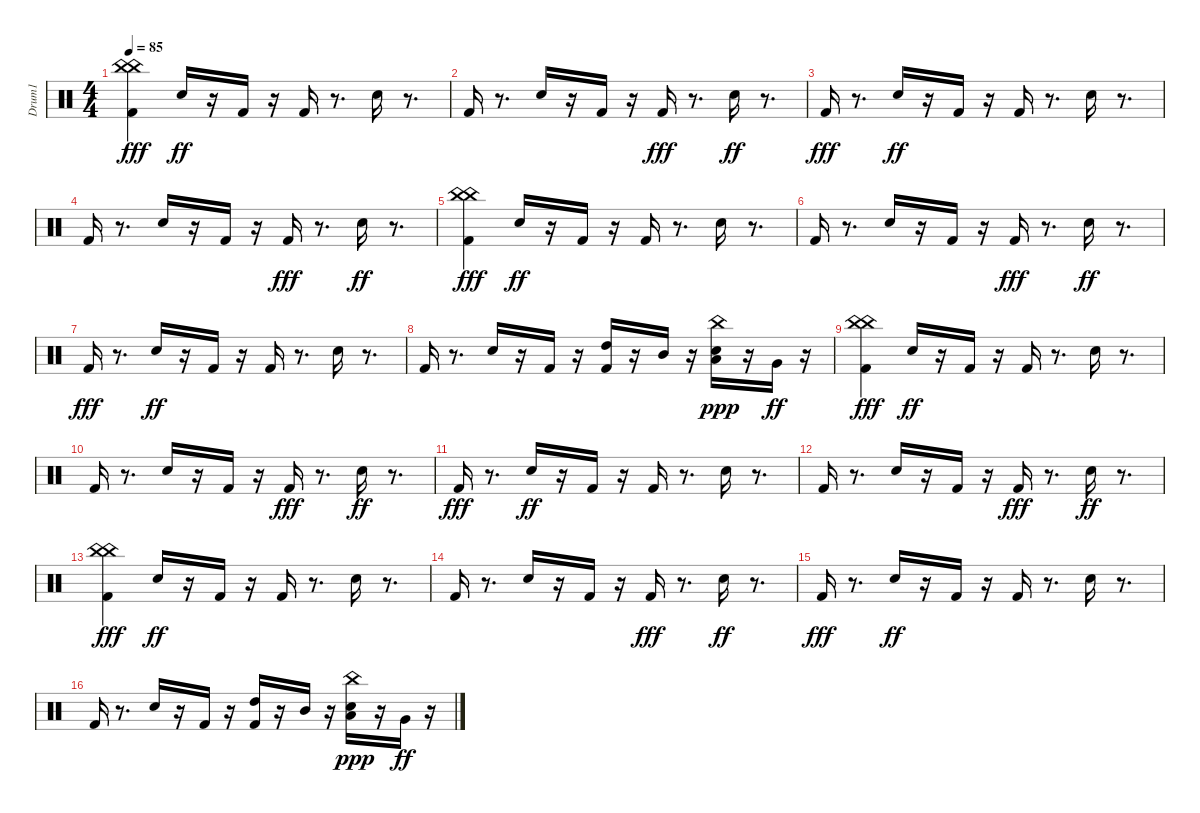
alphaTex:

\track ("Drum1" "Drum1") {instrument percussion}
\staff {score}
\articulation defaults
\ts (4 4)
\tempo 85
\clef neutral
\ks c
("China (hit)" "Kick (hit) 2" "China (hit)").4{dy fff} "Hand Clap (hit)".16{dy ff} r.16 "Kick (hit) 2".16 r.16 "Kick (hit) 2".16 r.8{d} "Hand Clap (hit)".16 r.8{d} |
"Kick (hit) 2".16 r.8{d} "Hand Clap (hit)".16 r.16 "Kick (hit) 2".16 r.16 "Kick (hit) 2".16{dy fff} r.8{d} "Hand Clap (hit)".16{dy ff} r.8{d} |
"Kick (hit) 2".16{dy fff} r.8{d} "Hand Clap (hit)".16{dy ff} r.16 "Kick (hit) 2".16 r.16 "Kick (hit) 2".16 r.8{d} "Hand Clap (hit)".16 r.8{d} |
"Kick (hit) 2".16 r.8{d} "Hand Clap (hit)".16 r.16 "Kick (hit) 2".16 r.16 "Kick (hit) 2".16{dy fff} r.8{d} "Hand Clap (hit)".16{dy ff} r.8{d} |
("China (hit)" "Kick (hit) 2" "China (hit)").4{dy fff} "Hand Clap (hit)".16{dy ff} r.16 "Kick (hit) 2".16 r.16 "Kick (hit) 2".16 r.8{d} "Hand Clap (hit)".16 r.8{d} |
"Kick (hit) 2".16 r.8{d} "Hand Clap (hit)".16 r.16 "Kick (hit) 2".16 r.16 "Kick (hit) 2".16{dy fff} r.8{d} "Hand Clap (hit)".16{dy ff} r.8{d} |
"Kick (hit) 2".16{dy fff} r.8{d} "Hand Clap (hit)".16{dy ff} r.16 "Kick (hit) 2".16 r.16 "Kick (hit) 2".16 r.8{d} "Hand Clap (hit)".16 r.8{d} |
"Kick (hit) 2".16 r.8{d} "Hand Clap (hit)".16 r.16 "Kick (hit) 2".16 r.16 ("Kick (hit) 2" "High Tom (hit)").16 r.16 "Mid Tom (hit)".16 r.16 ("Hand Clap (hit)" "Low Tom (hit)" "China (hit)").16{dy ppp} r.16 "Very Low Tom (hit)".16{dy ff} r.16 |
("China (hit)" "Kick (hit) 2" "China (hit)").4{dy fff} "Hand Clap (hit)".16{dy ff} r.16 "Kick (hit) 2".16 r.16 "Kick (hit) 2".16 r.8{d} "Hand Clap (hit)".16 r.8{d} |
"Kick (hit) 2".16 r.8{d} "Hand Clap (hit)".16 r.16 "Kick (hit) 2".16 r.16 "Kick (hit) 2".16{dy fff} r.8{d} "Hand Clap (hit)".16{dy ff} r.8{d} |
"Kick (hit) 2".16{dy fff} r.8{d} "Hand Clap (hit)".16{dy ff} r.16 "Kick (hit) 2".16 r.16 "Kick (hit) 2".16 r.8{d} "Hand Clap (hit)".16 r.8{d} |
"Kick (hit) 2".16 r.8{d} "Hand Clap (hit)".16 r.16 "Kick (hit) 2".16 r.16 "Kick (hit) 2".16{dy fff} r.8{d} "Hand Clap (hit)".16{dy ff} r.8{d} |
("China (hit)" "Kick (hit) 2" "China (hit)").4{dy fff} "Hand Clap (hit)".16{dy ff} r.16 "Kick (hit) 2".16 r.16 "Kick (hit) 2".16 r.8{d} "Hand Clap (hit)".16 r.8{d} |
"Kick (hit) 2".16 r.8{d} "Hand Clap (hit)".16 r.16 "Kick (hit) 2".16 r.16 "Kick (hit) 2".16{dy fff} r.8{d} "Hand Clap (hit)".16{dy ff} r.8{d} |
"Kick (hit) 2".16{dy fff} r.8{d} "Hand Clap (hit)".16{dy ff} r.16 "Kick (hit) 2".16 r.16 "Kick (hit) 2".16 r.8{d} "Hand Clap (hit)".16 r.8{d} |
"Kick (hit) 2".16 r.8{d} "Hand Clap (hit)".16 r.16 "Kick (hit) 2".16 r.16 ("Kick (hit) 2" "High Tom (hit)").16 r.16 "Mid Tom (hit)".16 r.16 ("Hand Clap (hit)" "Low Tom (hit)" "China (hit)").16{dy ppp} r.16 "Very Low Tom (hit)".16{dy ff volume 16} r.16
